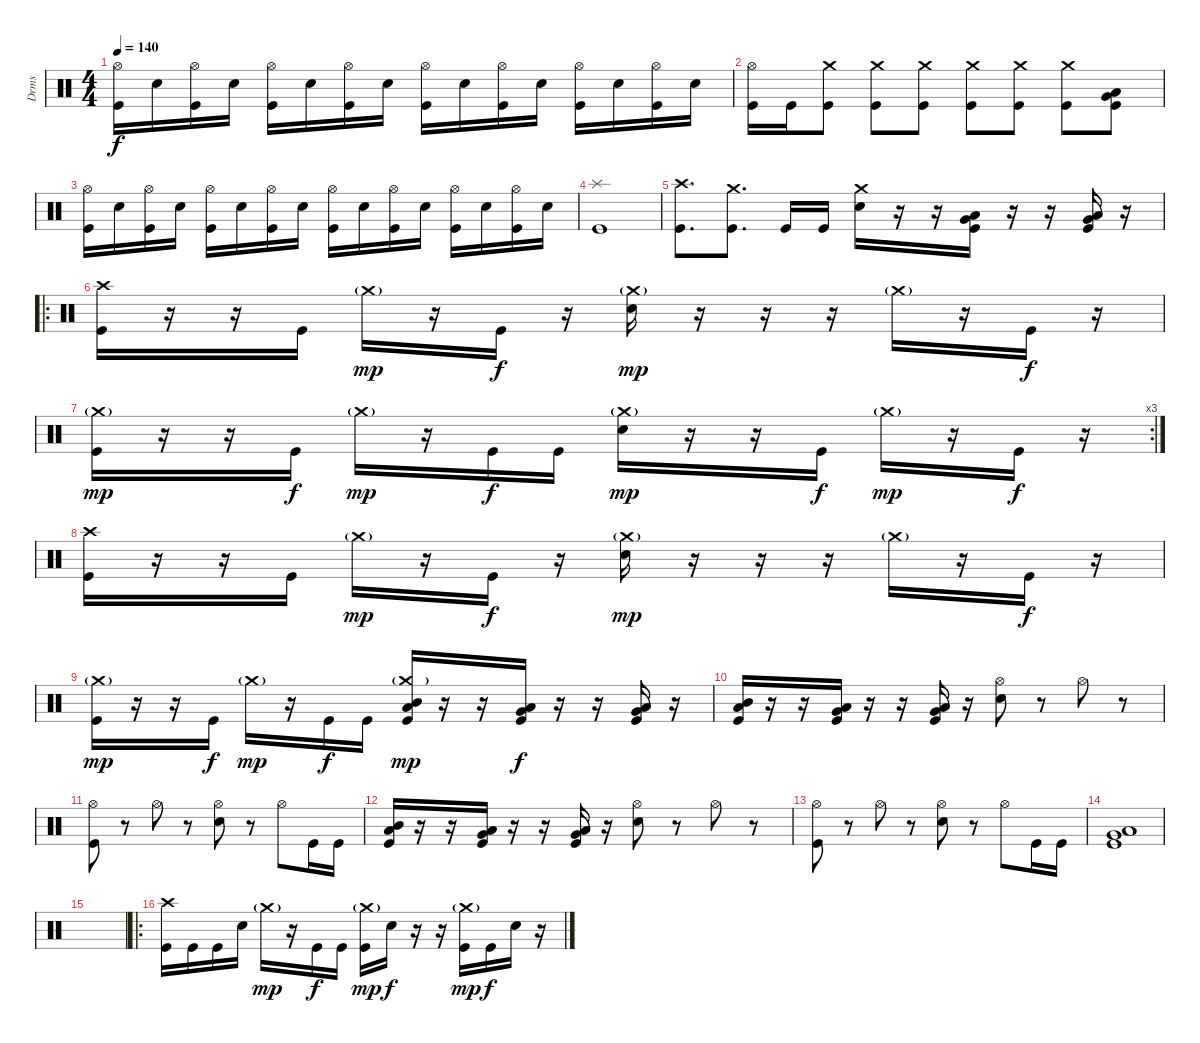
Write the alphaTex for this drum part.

\track ("Drms" "Drms") {instrument percussion}
\staff {score}
\articulation defaults
\ts (4 4)
\tempo 140
\clef neutral
\ks c
("Hi-Hat (open)" "Kick (hit)").16{dy f} "Electric Snare (hit)".16 ("Hi-Hat (open)" "Kick (hit)").16 "Electric Snare (hit)".16 ("Hi-Hat (open)" "Kick (hit)").16 "Electric Snare (hit)".16 ("Hi-Hat (open)" "Kick (hit)").16 "Electric Snare (hit)".16 ("Hi-Hat (open)" "Kick (hit)").16 "Electric Snare (hit)".16 ("Hi-Hat (open)" "Kick (hit)").16 "Electric Snare (hit)".16 ("Hi-Hat (open)" "Kick (hit)").16 "Electric Snare (hit)".16 ("Hi-Hat (open)" "Kick (hit)").16 "Electric Snare (hit)".16 |
("Hi-Hat (open)" "Kick (hit)").16 "Kick (hit)".16 ("Crash medium (hit)" "Kick (hit)").8 ("Crash medium (hit)" "Kick (hit)").8 ("Crash medium (hit)" "Kick (hit)").8 ("Crash medium (hit)" "Kick (hit)").8 ("Crash medium (hit)" "Kick (hit)").8 ("Crash medium (hit)" "Kick (hit)").8 ("Low Floor Tom (hit)" "Very Low Tom (hit)" "Kick (hit)").8 |
("Hi-Hat (open)" "Kick (hit)").16 "Electric Snare (hit)".16 ("Hi-Hat (open)" "Kick (hit)").16 "Electric Snare (hit)".16 ("Hi-Hat (open)" "Kick (hit)").16 "Electric Snare (hit)".16 ("Hi-Hat (open)" "Kick (hit)").16 "Electric Snare (hit)".16 ("Hi-Hat (open)" "Kick (hit)").16 "Electric Snare (hit)".16 ("Hi-Hat (open)" "Kick (hit)").16 "Electric Snare (hit)".16 ("Hi-Hat (open)" "Kick (hit)").16 "Electric Snare (hit)".16 ("Hi-Hat (open)" "Kick (hit)").16 "Electric Snare (hit)".16 |
("Splash (hit)" "Kick (hit)").1 |
("Crash high (hit)" "Kick (hit)").8{d} ("Crash medium (hit)" "Kick (hit)").8{d} "Kick (hit)".16 "Kick (hit)".16 ("Crash medium (hit)" "Electric Snare (hit)").16 r.16 r.16 ("Very Low Tom (hit)" "Low Tom (hit)" "Kick (hit)").16 r.16 r.16 ("Low Floor Tom (hit)" "Very Low Tom (hit)" "Kick (hit)").16 r.16 |
\ro
("Crash high (hit)" "Kick (hit)").16 r.16 r.16 "Kick (hit)".16 "Crash medium (hit)"{g}.16{dy mp} r.16 "Kick (hit)".16{dy f} r.16 ("Crash medium (hit)"{g} "Electric Snare (hit)").16{dy mp} r.16 r.16 r.16 "Crash medium (hit)"{g}.16 r.16 "Kick (hit)".16{dy f} r.16 |
\rc 3
("Crash medium (hit)"{g} "Kick (hit)").16{dy mp} r.16 r.16 "Kick (hit)".16{dy f} "Crash medium (hit)"{g}.16{dy mp} r.16 "Kick (hit)".16{dy f} "Kick (hit)".16 ("Crash medium (hit)"{g} "Electric Snare (hit)").16{dy mp} r.16 r.16 "Kick (hit)".16{dy f} "Crash medium (hit)"{g}.16{dy mp} r.16 "Kick (hit)".16{dy f} r.16 |
("Crash high (hit)" "Kick (hit)").16 r.16 r.16 "Kick (hit)".16 "Crash medium (hit)"{g}.16{dy mp} r.16 "Kick (hit)".16{dy f} r.16 ("Crash medium (hit)"{g} "Electric Snare (hit)").16{dy mp} r.16 r.16 r.16 "Crash medium (hit)"{g}.16 r.16 "Kick (hit)".16{dy f} r.16 |
("Crash medium (hit)"{g} "Kick (hit)").16{dy mp} r.16 r.16 "Kick (hit)".16{dy f} "Crash medium (hit)"{g}.16{dy mp} r.16 "Kick (hit)".16{dy f} "Kick (hit)".16 ("Crash medium (hit)"{g} "Low Tom (hit)" "Mid Tom (hit)" "Kick (hit)").16{dy mp} r.16 r.16 ("Very Low Tom (hit)" "Low Tom (hit)" "Kick (hit)").16{dy f} r.16 r.16 ("Low Floor Tom (hit)" "Very Low Tom (hit)" "Kick (hit)").16 r.16 |
("Mid Tom (hit)" "Low Tom (hit)" "Kick (hit)").16 r.16 r.16 ("Very Low Tom (hit)" "Low Tom (hit)" "Kick (hit)").16 r.16 r.16 ("Low Floor Tom (hit)" "Very Low Tom (hit)" "Kick (hit)").16 r.16 ("Hi-Hat (open)" "Electric Snare (hit)").8 r.8 "Hi-Hat (open)".8 r.8 |
("Hi-Hat (open)" "Kick (hit)").8 r.8 "Hi-Hat (open)".8 r.8 ("Hi-Hat (open)" "Electric Snare (hit)").8 r.8 "Hi-Hat (open)".8 "Kick (hit)".16 "Kick (hit)".16 |
("Mid Tom (hit)" "Low Tom (hit)" "Kick (hit)").16 r.16 r.16 ("Very Low Tom (hit)" "Low Tom (hit)" "Kick (hit)").16 r.16 r.16 ("Low Floor Tom (hit)" "Very Low Tom (hit)" "Kick (hit)").16 r.16 ("Hi-Hat (open)" "Electric Snare (hit)").8 r.8 "Hi-Hat (open)".8 r.8 |
("Hi-Hat (open)" "Kick (hit)").8 r.8 "Hi-Hat (open)".8 r.8 ("Hi-Hat (open)" "Electric Snare (hit)").8 r.8 "Hi-Hat (open)".8 "Kick (hit)".16 "Kick (hit)".16 |
("Low Floor Tom (hit)" "Very Low Tom (hit)" "Kick (hit)").1 |
|
\ro
("Crash high (hit)" "Kick (hit)").16 "Kick (hit)".16 "Kick (hit)".16 "Electric Snare (hit)".16 "Crash medium (hit)"{g}.16{dy mp} r.16 "Kick (hit)".16{dy f} "Kick (hit)".16 ("Crash medium (hit)"{g} "Kick (hit)").16{dy mp} "Electric Snare (hit)".16{dy f} r.16 r.16 ("Crash medium (hit)"{g} "Kick (hit)").16{dy mp} "Kick (hit)".16{dy f} "Electric Snare (hit)".16 r.16
